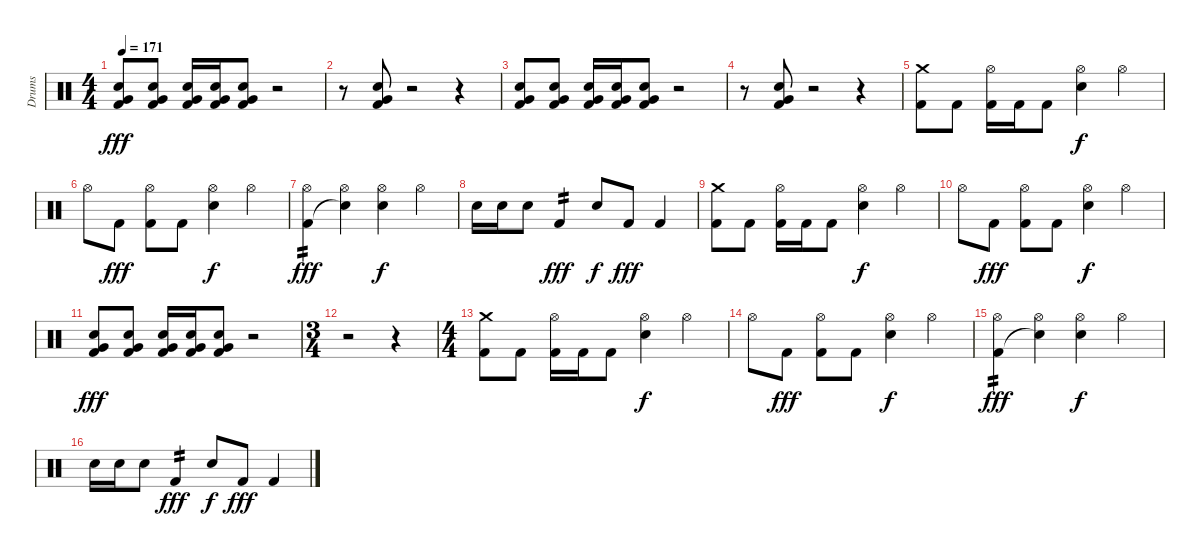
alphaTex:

\track ("Drums" "Drums") {instrument percussion}
\staff {score}
\articulation defaults
\ts (4 4)
\tempo 171
\clef neutral
\ks c
("Very Low Tom (hit)" "Electric Snare (hit)" "Kick (hit) 2").8{dy fff} ("Very Low Tom (hit)" "Electric Snare (hit)" "Kick (hit) 2").8 ("Very Low Tom (hit)" "Electric Snare (hit)" "Kick (hit) 2").16 ("Very Low Tom (hit)" "Electric Snare (hit)" "Kick (hit) 2").16 ("Very Low Tom (hit)" "Electric Snare (hit)" "Kick (hit) 2").8 r.2 |
r.8 ("Very Low Tom (hit)" "Electric Snare (hit)" "Kick (hit) 2").8 r.2 r.4 |
("Very Low Tom (hit)" "Electric Snare (hit)" "Kick (hit) 2").8 ("Very Low Tom (hit)" "Electric Snare (hit)" "Kick (hit) 2").8 ("Very Low Tom (hit)" "Electric Snare (hit)" "Kick (hit) 2").16 ("Very Low Tom (hit)" "Electric Snare (hit)" "Kick (hit) 2").16 ("Very Low Tom (hit)" "Electric Snare (hit)" "Kick (hit) 2").8 r.2 |
r.8 ("Very Low Tom (hit)" "Electric Snare (hit)" "Kick (hit) 2").8 r.2 r.4 |
("Crash medium (hit)" "Kick (hit) 2").8 "Kick (hit) 2".8 ("Hi-Hat (open)" "Kick (hit) 2").16 "Kick (hit) 2".16 "Kick (hit) 2".8 ("Hi-Hat (open)" "Electric Snare (hit)").4{dy f} "Hi-Hat (open)".4 |
"Hi-Hat (open)".8 "Kick (hit) 2".8{dy fff} ("Hi-Hat (open)" "Kick (hit) 2").8 "Kick (hit) 2".8 ("Hi-Hat (open)" "Electric Snare (hit)").4{dy f} "Hi-Hat (open)".4 |
("Hi-Hat (open)" "Kick (hit) 2").4{tp 2 dy fff} ("Hi-Hat (open)" "Snare (hit)"{t}).4 ("Hi-Hat (open)" "Electric Snare (hit)").4{dy f} "Hi-Hat (open)".4 |
"Electric Snare (hit)".16 "Electric Snare (hit)".16 "Electric Snare (hit)".8 "Kick (hit) 2".4{tp 2 dy fff} "Electric Snare (hit)".8{dy f} "Kick (hit) 2".8{dy fff} "Kick (hit) 2".4 |
("Crash medium (hit)" "Kick (hit) 2").8 "Kick (hit) 2".8 ("Hi-Hat (open)" "Kick (hit) 2").16 "Kick (hit) 2".16 "Kick (hit) 2".8 ("Hi-Hat (open)" "Electric Snare (hit)").4{dy f} "Hi-Hat (open)".4 |
"Hi-Hat (open)".8 "Kick (hit) 2".8{dy fff} ("Hi-Hat (open)" "Kick (hit) 2").8 "Kick (hit) 2".8 ("Hi-Hat (open)" "Electric Snare (hit)").4{dy f} "Hi-Hat (open)".4 |
("Very Low Tom (hit)" "Electric Snare (hit)" "Kick (hit) 2").8{dy fff} ("Very Low Tom (hit)" "Electric Snare (hit)" "Kick (hit) 2").8 ("Very Low Tom (hit)" "Electric Snare (hit)" "Kick (hit) 2").16 ("Very Low Tom (hit)" "Electric Snare (hit)" "Kick (hit) 2").16 ("Very Low Tom (hit)" "Electric Snare (hit)" "Kick (hit) 2").8 r.2 |
\ts (3 4)
r.2 r.4 |
\ts (4 4)
("Crash medium (hit)" "Kick (hit) 2").8 "Kick (hit) 2".8 ("Hi-Hat (open)" "Kick (hit) 2").16 "Kick (hit) 2".16 "Kick (hit) 2".8 ("Hi-Hat (open)" "Electric Snare (hit)").4{dy f} "Hi-Hat (open)".4 |
"Hi-Hat (open)".8 "Kick (hit) 2".8{dy fff} ("Hi-Hat (open)" "Kick (hit) 2").8 "Kick (hit) 2".8 ("Hi-Hat (open)" "Electric Snare (hit)").4{dy f} "Hi-Hat (open)".4 |
("Hi-Hat (open)" "Kick (hit) 2").4{tp 2 dy fff} ("Hi-Hat (open)" "Snare (hit)"{t}).4 ("Hi-Hat (open)" "Electric Snare (hit)").4{dy f} "Hi-Hat (open)".4 |
"Electric Snare (hit)".16 "Electric Snare (hit)".16 "Electric Snare (hit)".8 "Kick (hit) 2".4{tp 2 dy fff} "Electric Snare (hit)".8{dy f} "Kick (hit) 2".8{dy fff} "Kick (hit) 2".4
